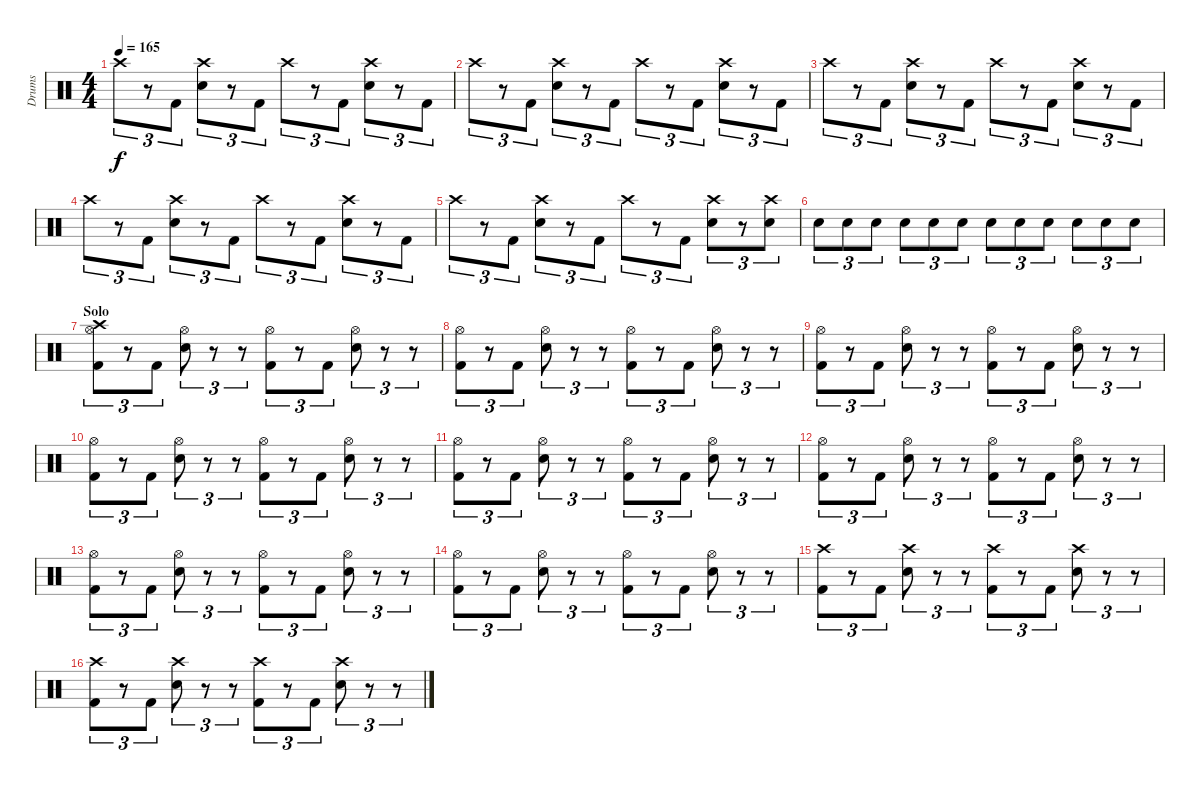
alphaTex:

\track ("Drums" "Drums") {instrument percussion}
\staff {score}
\articulation defaults
\ts (4 4)
\tempo 165
\clef neutral
\ks c "Crash high (hit)".8{tu (3 2) dy f}
r.8{tu (3 2)} "Kick (hit) 2".8{tu (3 2)} ("Crash high (hit)" "Snare (hit) 2").8{tu (3 2)} r.8{tu (3 2)} "Kick (hit) 2".8{tu (3 2)} "Crash high (hit)".8{tu (3 2)} r.8{tu (3 2)} "Kick (hit) 2".8{tu (3 2)} ("Crash high (hit)" "Snare (hit) 2").8{tu (3 2)} r.8{tu (3 2)} "Kick (hit) 2".8{tu (3 2)} |
"Crash high (hit)".8{tu (3 2)} r.8{tu (3 2)} "Kick (hit) 2".8{tu (3 2)} ("Crash high (hit)" "Snare (hit) 2").8{tu (3 2)} r.8{tu (3 2)} "Kick (hit) 2".8{tu (3 2)} "Crash high (hit)".8{tu (3 2)} r.8{tu (3 2)} "Kick (hit) 2".8{tu (3 2)} ("Crash high (hit)" "Snare (hit) 2").8{tu (3 2)} r.8{tu (3 2)} "Kick (hit) 2".8{tu (3 2)} |
"Crash high (hit)".8{tu (3 2)} r.8{tu (3 2)} "Kick (hit) 2".8{tu (3 2)} ("Crash high (hit)" "Snare (hit) 2").8{tu (3 2)} r.8{tu (3 2)} "Kick (hit) 2".8{tu (3 2)} "Crash high (hit)".8{tu (3 2)} r.8{tu (3 2)} "Kick (hit) 2".8{tu (3 2)} ("Crash high (hit)" "Snare (hit) 2").8{tu (3 2)} r.8{tu (3 2)} "Kick (hit) 2".8{tu (3 2)} |
"Crash high (hit)".8{tu (3 2)} r.8{tu (3 2)} "Kick (hit) 2".8{tu (3 2)} ("Crash high (hit)" "Snare (hit) 2").8{tu (3 2)} r.8{tu (3 2)} "Kick (hit) 2".8{tu (3 2)} "Crash high (hit)".8{tu (3 2)} r.8{tu (3 2)} "Kick (hit) 2".8{tu (3 2)} ("Crash high (hit)" "Snare (hit) 2").8{tu (3 2)} r.8{tu (3 2)} "Kick (hit) 2".8{tu (3 2)} |
"Crash high (hit)".8{tu (3 2)} r.8{tu (3 2)} "Kick (hit) 2".8{tu (3 2)} ("Crash high (hit)" "Snare (hit) 2").8{tu (3 2)} r.8{tu (3 2)} "Kick (hit) 2".8{tu (3 2)} "Crash high (hit)".8{tu (3 2)} r.8{tu (3 2)} "Kick (hit) 2".8{tu (3 2)} ("Crash high (hit)" "Snare (hit) 2").8{tu (3 2)} r.8{tu (3 2)} ("Crash high (hit)" "Snare (hit) 2").8{tu (3 2)} |
"Snare (hit) 2".8{tu (3 2)} "Snare (hit) 2".8{tu (3 2)} "Snare (hit) 2".8{tu (3 2)} "Snare (hit) 2".8{tu (3 2)} "Snare (hit) 2".8{tu (3 2)} "Snare (hit) 2".8{tu (3 2)} "Snare (hit) 2".8{tu (3 2)} "Snare (hit) 2".8{tu (3 2)} "Snare (hit) 2".8{tu (3 2)} "Snare (hit) 2".8{tu (3 2)} "Snare (hit) 2".8{tu (3 2)} "Snare (hit) 2".8{tu (3 2)} |
\section ("" "Solo")
("Hi-Hat (open)" "Crash high (hit)" "Kick (hit) 2").8{tu (3 2)} r.8{tu (3 2)} "Kick (hit) 2".8{tu (3 2)} ("Hi-Hat (open)" "Snare (hit) 2").8{tu (3 2)} r.8{tu (3 2)} r.8{tu (3 2)} ("Hi-Hat (open)" "Kick (hit) 2").8{tu (3 2)} r.8{tu (3 2)} "Kick (hit) 2".8{tu (3 2)} ("Hi-Hat (open)" "Snare (hit) 2").8{tu (3 2)} r.8{tu (3 2)} r.8{tu (3 2)} |
("Hi-Hat (open)" "Kick (hit) 2").8{tu (3 2)} r.8{tu (3 2)} "Kick (hit) 2".8{tu (3 2)} ("Hi-Hat (open)" "Snare (hit) 2").8{tu (3 2)} r.8{tu (3 2)} r.8{tu (3 2)} ("Hi-Hat (open)" "Kick (hit) 2").8{tu (3 2)} r.8{tu (3 2)} "Kick (hit) 2".8{tu (3 2)} ("Hi-Hat (open)" "Snare (hit) 2").8{tu (3 2)} r.8{tu (3 2)} r.8{tu (3 2)} |
("Hi-Hat (open)" "Kick (hit) 2").8{tu (3 2)} r.8{tu (3 2)} "Kick (hit) 2".8{tu (3 2)} ("Hi-Hat (open)" "Snare (hit) 2").8{tu (3 2)} r.8{tu (3 2)} r.8{tu (3 2)} ("Hi-Hat (open)" "Kick (hit) 2").8{tu (3 2)} r.8{tu (3 2)} "Kick (hit) 2".8{tu (3 2)} ("Hi-Hat (open)" "Snare (hit) 2").8{tu (3 2)} r.8{tu (3 2)} r.8{tu (3 2)} |
("Hi-Hat (open)" "Kick (hit) 2").8{tu (3 2)} r.8{tu (3 2)} "Kick (hit) 2".8{tu (3 2)} ("Hi-Hat (open)" "Snare (hit) 2").8{tu (3 2)} r.8{tu (3 2)} r.8{tu (3 2)} ("Hi-Hat (open)" "Kick (hit) 2").8{tu (3 2)} r.8{tu (3 2)} "Kick (hit) 2".8{tu (3 2)} ("Hi-Hat (open)" "Snare (hit) 2").8{tu (3 2)} r.8{tu (3 2)} r.8{tu (3 2)} |
("Hi-Hat (open)" "Kick (hit) 2").8{tu (3 2)} r.8{tu (3 2)} "Kick (hit) 2".8{tu (3 2)} ("Hi-Hat (open)" "Snare (hit) 2").8{tu (3 2)} r.8{tu (3 2)} r.8{tu (3 2)} ("Hi-Hat (open)" "Kick (hit) 2").8{tu (3 2)} r.8{tu (3 2)} "Kick (hit) 2".8{tu (3 2)} ("Hi-Hat (open)" "Snare (hit) 2").8{tu (3 2)} r.8{tu (3 2)} r.8{tu (3 2)} |
("Hi-Hat (open)" "Kick (hit) 2").8{tu (3 2)} r.8{tu (3 2)} "Kick (hit) 2".8{tu (3 2)} ("Hi-Hat (open)" "Snare (hit) 2").8{tu (3 2)} r.8{tu (3 2)} r.8{tu (3 2)} ("Hi-Hat (open)" "Kick (hit) 2").8{tu (3 2)} r.8{tu (3 2)} "Kick (hit) 2".8{tu (3 2)} ("Hi-Hat (open)" "Snare (hit) 2").8{tu (3 2)} r.8{tu (3 2)} r.8{tu (3 2)} |
("Hi-Hat (open)" "Kick (hit) 2").8{tu (3 2)} r.8{tu (3 2)} "Kick (hit) 2".8{tu (3 2)} ("Hi-Hat (open)" "Snare (hit) 2").8{tu (3 2)} r.8{tu (3 2)} r.8{tu (3 2)} ("Hi-Hat (open)" "Kick (hit) 2").8{tu (3 2)} r.8{tu (3 2)} "Kick (hit) 2".8{tu (3 2)} ("Hi-Hat (open)" "Snare (hit) 2").8{tu (3 2)} r.8{tu (3 2)} r.8{tu (3 2)} |
("Hi-Hat (open)" "Kick (hit) 2").8{tu (3 2)} r.8{tu (3 2)} "Kick (hit) 2".8{tu (3 2)} ("Hi-Hat (open)" "Snare (hit) 2").8{tu (3 2)} r.8{tu (3 2)} r.8{tu (3 2)} ("Hi-Hat (open)" "Kick (hit) 2").8{tu (3 2)} r.8{tu (3 2)} "Kick (hit) 2".8{tu (3 2)} ("Hi-Hat (open)" "Snare (hit) 2").8{tu (3 2)} r.8{tu (3 2)} r.8{tu (3 2)} |
("Crash high (hit)" "Kick (hit) 2").8{tu (3 2)} r.8{tu (3 2)} "Kick (hit) 2".8{tu (3 2)} ("Crash high (hit)" "Snare (hit) 2").8{tu (3 2)} r.8{tu (3 2)} r.8{tu (3 2)} ("Crash high (hit)" "Kick (hit) 2").8{tu (3 2)} r.8{tu (3 2)} "Kick (hit) 2".8{tu (3 2)} ("Crash high (hit)" "Snare (hit) 2").8{tu (3 2)} r.8{tu (3 2)} r.8{tu (3 2)} |
("Crash high (hit)" "Kick (hit) 2").8{tu (3 2)} r.8{tu (3 2)} "Kick (hit) 2".8{tu (3 2)} ("Crash high (hit)" "Snare (hit) 2").8{tu (3 2)} r.8{tu (3 2)} r.8{tu (3 2)} ("Crash high (hit)" "Kick (hit) 2").8{tu (3 2)} r.8{tu (3 2)} "Kick (hit) 2".8{tu (3 2)} ("Crash high (hit)" "Snare (hit) 2").8{tu (3 2)} r.8{tu (3 2)} r.8{tu (3 2)}
